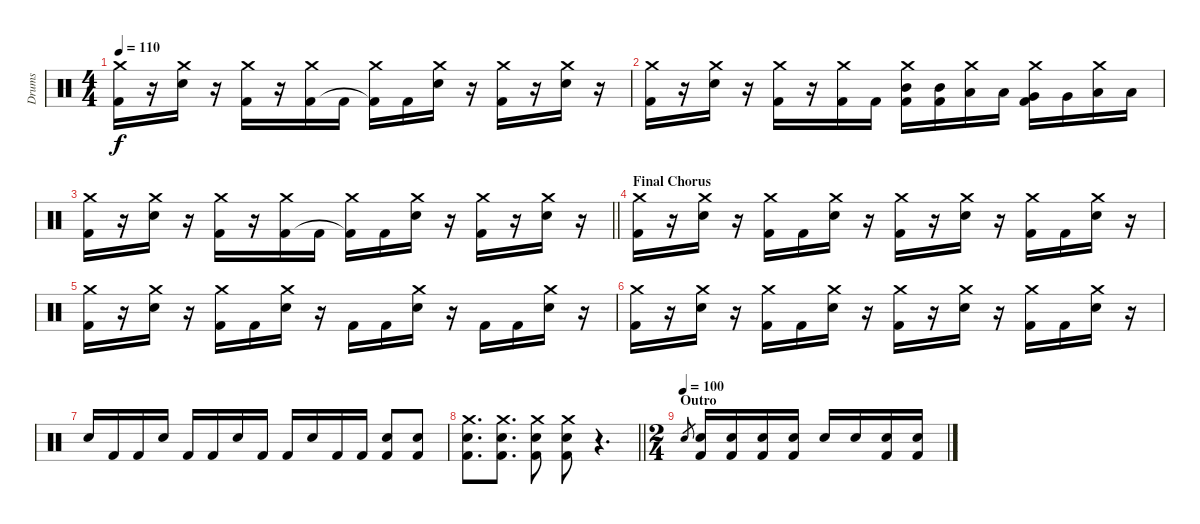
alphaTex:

\track ("Drums" "Drums") {instrument percussion}
\staff {score}
\articulation defaults
\ts (4 4)
\tempo 110
\clef neutral
\ks c
("Crash medium (hit)" "Kick (hit) 2").16{dy f} r.16 ("Crash medium (hit)" "Electric Snare (hit)").16 r.16 ("Crash medium (hit)" "Kick (hit) 2").16 r.16 ("Crash medium (hit)" "Kick (hit) 2").16 "Kick (hit) 2".16 ("Crash medium (hit)" "Kick (hit) 2"{t}).16 "Kick (hit) 2".16 ("Crash medium (hit)" "Electric Snare (hit)").16 r.16 ("Crash medium (hit)" "Kick (hit) 2").16 r.16 ("Crash medium (hit)" "Electric Snare (hit)").16 r.16 |
("Crash medium (hit)" "Kick (hit) 2").16 r.16 ("Crash medium (hit)" "Electric Snare (hit)").16 r.16 ("Crash medium (hit)" "Kick (hit) 2").16 r.16 ("Crash medium (hit)" "Kick (hit) 2").16 "Kick (hit) 2".16 ("Crash medium (hit)" "Mid Tom (hit)" "Kick (hit) 2"{t}).16 ("Mid Tom (hit)" "Kick (hit) 2").16 ("Crash medium (hit)" "Low Tom (hit)").16 "Low Tom (hit)".16 ("Crash medium (hit)" "Very Low Tom (hit)" "Kick (hit) 2").16 "Very Low Tom (hit)".16 ("Crash medium (hit)" "Low Floor Tom (hit)").16 "Low Floor Tom (hit)".16 |
\barLineRight lightlight
("Crash medium (hit)" "Kick (hit) 2").16 r.16 ("Crash medium (hit)" "Electric Snare (hit)").16 r.16 ("Crash medium (hit)" "Kick (hit) 2").16 r.16 ("Crash medium (hit)" "Kick (hit) 2").16 "Kick (hit) 2".16 ("Crash medium (hit)" "Kick (hit) 2"{t}).16 "Kick (hit) 2".16 ("Crash medium (hit)" "Electric Snare (hit)").16 r.16 ("Crash medium (hit)" "Kick (hit) 2").16 r.16 ("Crash medium (hit)" "Electric Snare (hit)").16 r.16 |
\section ("" "Final Chorus")
("Crash medium (hit)" "Kick (hit) 2").16 r.16 ("Crash medium (hit)" "Electric Snare (hit)").16 r.16 ("Crash medium (hit)" "Kick (hit) 2").16 "Kick (hit) 2".16 ("Crash medium (hit)" "Electric Snare (hit)").16 r.16 ("Crash medium (hit)" "Kick (hit) 2").16 r.16 ("Crash medium (hit)" "Electric Snare (hit)").16 r.16 ("Crash medium (hit)" "Kick (hit) 2").16 "Kick (hit) 2".16 ("Crash medium (hit)" "Electric Snare (hit)").16 r.16 |
("Crash medium (hit)" "Kick (hit) 2").16 r.16 ("Crash medium (hit)" "Electric Snare (hit)").16 r.16 ("Crash medium (hit)" "Kick (hit) 2").16 "Kick (hit) 2".16 ("Crash medium (hit)" "Electric Snare (hit)").16 r.16 "Kick (hit) 2".16 "Kick (hit) 2".16 ("Crash medium (hit)" "Electric Snare (hit)").16 r.16 "Kick (hit) 2".16 "Kick (hit) 2".16 ("Crash medium (hit)" "Electric Snare (hit)").16 r.16 |
("Crash medium (hit)" "Kick (hit) 2").16 r.16 ("Crash medium (hit)" "Electric Snare (hit)").16 r.16 ("Crash medium (hit)" "Kick (hit) 2").16 "Kick (hit) 2".16 ("Crash medium (hit)" "Electric Snare (hit)").16 r.16 ("Crash medium (hit)" "Kick (hit) 2").16 r.16 ("Crash medium (hit)" "Electric Snare (hit)").16 r.16 ("Crash medium (hit)" "Kick (hit) 2").16 "Kick (hit) 2".16 ("Crash medium (hit)" "Electric Snare (hit)").16 r.16 |
"Electric Snare (hit)".16 "Kick (hit) 2".16 "Kick (hit) 2".16 "Electric Snare (hit)".16 "Kick (hit) 2".16 "Kick (hit) 2".16 "Electric Snare (hit)".16 "Kick (hit) 2".16 "Kick (hit) 2".16 "Electric Snare (hit)".16 "Kick (hit) 2".16 "Kick (hit) 2".16 ("Electric Snare (hit)" "Kick (hit) 2").8 ("Electric Snare (hit)" "Kick (hit) 2").8 |
\barLineRight lightlight
("Crash medium (hit)" "Electric Snare (hit)" "Kick (hit) 2").8{d} ("Crash medium (hit)" "Electric Snare (hit)" "Kick (hit) 2").8{d} ("Crash medium (hit)" "Electric Snare (hit)" "Kick (hit) 2").8 ("Crash medium (hit)" "Electric Snare (hit)" "Kick (hit) 2").8 r.4{d} |
\ts (2 4)
\section ("" "Outro")
\tempo (100)
"Electric Snare (hit)".8{gr} ("Electric Snare (hit)" "Kick (hit) 2").16 ("Electric Snare (hit)" "Kick (hit) 2").16 ("Electric Snare (hit)" "Kick (hit) 2").16 ("Electric Snare (hit)" "Kick (hit) 2").16 "Electric Snare (hit)".16 "Electric Snare (hit)".16 ("Electric Snare (hit)" "Kick (hit) 2").16 ("Electric Snare (hit)" "Kick (hit) 2").16
